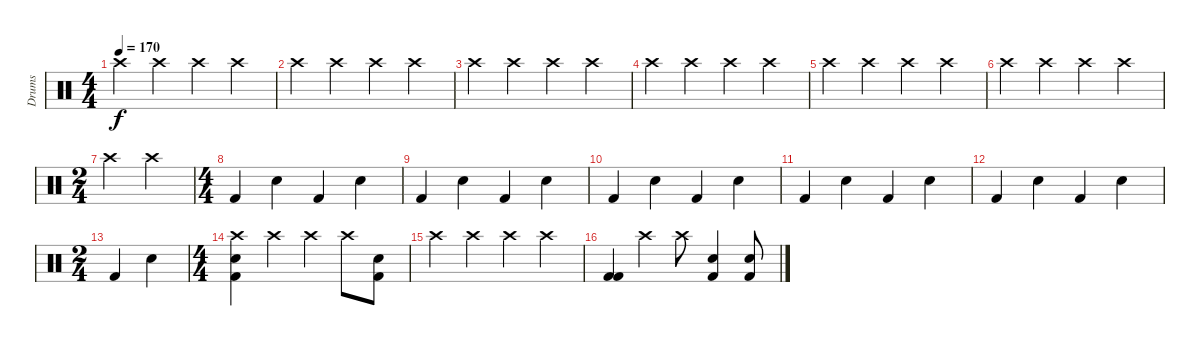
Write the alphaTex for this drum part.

\track ("Drums" "Drums") {instrument percussion}
\staff {score}
\articulation defaults
\ts (4 4)
\tempo 170
\clef neutral
\ks c "Crash high (hit)".4{dy f} "Crash high (hit)".4 "Crash high (hit)".4 "Crash high (hit)".4
|
"Crash high (hit)".4 "Crash high (hit)".4 "Crash high (hit)".4 "Crash high (hit)".4 |
"Crash high (hit)".4 "Crash high (hit)".4 "Crash high (hit)".4 "Crash high (hit)".4 |
"Crash high (hit)".4 "Crash high (hit)".4 "Crash high (hit)".4 "Crash high (hit)".4 |
"Crash high (hit)".4 "Crash high (hit)".4 "Crash high (hit)".4 "Crash high (hit)".4 |
"Crash high (hit)".4 "Crash high (hit)".4 "Crash high (hit)".4 "Crash high (hit)".4 |
\ts (2 4)
"Crash high (hit)".4 "Crash high (hit)".4 |
\ts (4 4)
"Kick (hit) 2".4 "Snare (hit) 2".4 "Kick (hit) 2".4 "Snare (hit) 2".4 |
"Kick (hit) 2".4 "Snare (hit) 2".4 "Kick (hit) 2".4 "Snare (hit) 2".4 |
"Kick (hit) 2".4 "Snare (hit) 2".4 "Kick (hit) 2".4 "Snare (hit) 2".4 |
"Kick (hit) 2".4 "Snare (hit) 2".4 "Kick (hit) 2".4 "Snare (hit) 2".4 |
"Kick (hit) 2".4 "Snare (hit) 2".4 "Kick (hit) 2".4 "Snare (hit) 2".4 |
\ts (2 4)
"Kick (hit) 2".4 "Snare (hit) 2".4 |
\ts (4 4)
("Snare (hit) 2" "Kick (hit) 2" "Crash high (hit)").4 "Crash high (hit)".4 "Crash high (hit)".4 "Crash high (hit)".8 ("Snare (hit) 2" "Kick (hit) 2").8 |
"Crash high (hit)".4 "Crash high (hit)".4 "Crash high (hit)".4 "Crash high (hit)".4 |
("Kick (hit) 2" "Kick (hit) 2").4 "Crash high (hit)".4 "Crash high (hit)".8 ("Snare (hit) 2" "Kick (hit) 2").4 ("Snare (hit) 2" "Kick (hit) 2").8
